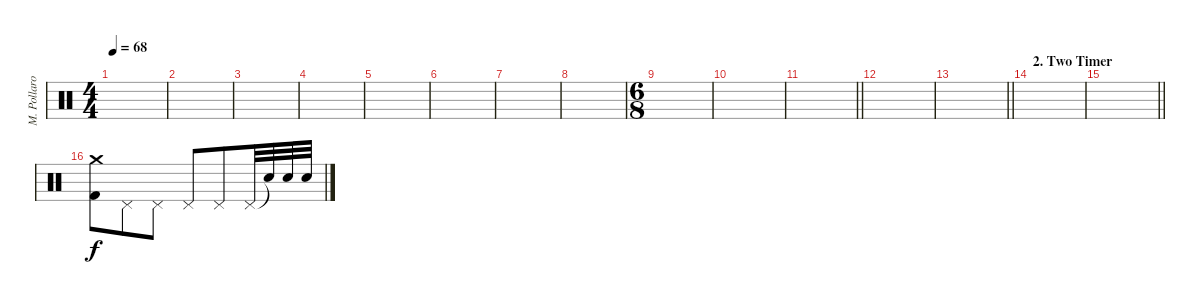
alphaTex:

\track ("M. Pollaro" "M. Pollaro") {instrument percussion}
\staff {score}
\articulation defaults
\ts (4 4)
\tempo 68
\clef neutral
\ks aminor
|
|
|
|
|
|
|
|
\ts (6 8)
|
|
\barLineRight lightlight
|
|
\barLineRight lightlight
|
\section ("" "2. Two Timer")
|
\barLineRight lightlight
|
("Crash medium (hit)" "Kick (hit) 2").8 "Pedal Hi-Hat (hit)".8 "Pedal Hi-Hat (hit)".8 "Pedal Hi-Hat (hit)".8 "Pedal Hi-Hat (hit)".8 "Pedal Hi-Hat (hit)".32 "Snare (hit)"{t}.32 "Snare (hit) 2".32 "Snare (hit) 2".32
